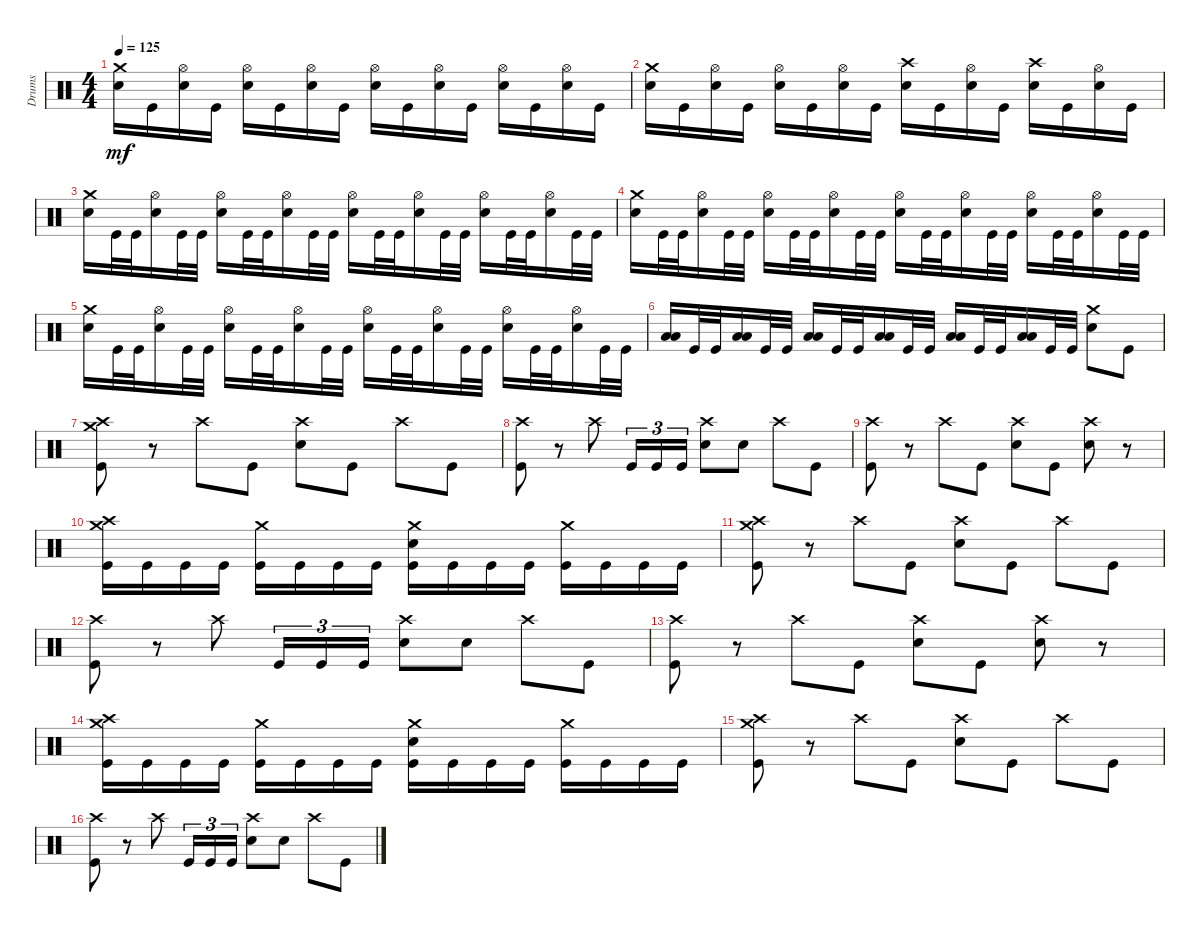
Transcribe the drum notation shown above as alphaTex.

\track ("Drums" "Drums") {instrument percussion}
\staff {score}
\articulation defaults
\ts (4 4)
\tempo 125
\clef neutral
\ks c
("Crash medium (hit)" "Electric Snare (hit)").16{dy mf} "Kick (hit)".16 ("Hi-Hat (open)" "Electric Snare (hit)").16 "Kick (hit)".16 ("Hi-Hat (open)" "Electric Snare (hit)").16 "Kick (hit)".16 ("Hi-Hat (open)" "Electric Snare (hit)").16 "Kick (hit)".16 ("Hi-Hat (open)" "Electric Snare (hit)").16 "Kick (hit)".16 ("Hi-Hat (open)" "Electric Snare (hit)").16 "Kick (hit)".16 ("Hi-Hat (open)" "Electric Snare (hit)").16 "Kick (hit)".16 ("Hi-Hat (open)" "Electric Snare (hit)").16 "Kick (hit)".16 |
("Crash medium (hit)" "Electric Snare (hit)").16 "Kick (hit)".16 ("Hi-Hat (open)" "Electric Snare (hit)").16 "Kick (hit)".16 ("Hi-Hat (open)" "Electric Snare (hit)").16 "Kick (hit)".16 ("Hi-Hat (open)" "Electric Snare (hit)").16 "Kick (hit)".16 ("Crash high (hit)" "Electric Snare (hit)").16 "Kick (hit)".16 ("Hi-Hat (open)" "Electric Snare (hit)").16 "Kick (hit)".16 ("Crash high (hit)" "Electric Snare (hit)").16 "Kick (hit)".16 ("Hi-Hat (open)" "Electric Snare (hit)").16 "Kick (hit)".16 |
("Crash medium (hit)" "Electric Snare (hit)").16 "Kick (hit)".32 "Kick (hit)".32 ("Hi-Hat (open)" "Electric Snare (hit)").16 "Kick (hit)".32 "Kick (hit)".32 ("Hi-Hat (open)" "Electric Snare (hit)").16 "Kick (hit)".32 "Kick (hit)".32 ("Hi-Hat (open)" "Electric Snare (hit)").16 "Kick (hit)".32 "Kick (hit)".32 ("Hi-Hat (open)" "Electric Snare (hit)").16 "Kick (hit)".32 "Kick (hit)".32 ("Hi-Hat (open)" "Electric Snare (hit)").16 "Kick (hit)".32 "Kick (hit)".32 ("Hi-Hat (open)" "Electric Snare (hit)").16 "Kick (hit)".32 "Kick (hit)".32 ("Hi-Hat (open)" "Electric Snare (hit)").16 "Kick (hit)".32 "Kick (hit)".32 |
("Crash medium (hit)" "Electric Snare (hit)").16 "Kick (hit)".32 "Kick (hit)".32 ("Hi-Hat (open)" "Electric Snare (hit)").16 "Kick (hit)".32 "Kick (hit)".32 ("Hi-Hat (open)" "Electric Snare (hit)").16 "Kick (hit)".32 "Kick (hit)".32 ("Hi-Hat (open)" "Electric Snare (hit)").16 "Kick (hit)".32 "Kick (hit)".32 ("Hi-Hat (open)" "Electric Snare (hit)").16 "Kick (hit)".32 "Kick (hit)".32 ("Hi-Hat (open)" "Electric Snare (hit)").16 "Kick (hit)".32 "Kick (hit)".32 ("Hi-Hat (open)" "Electric Snare (hit)").16 "Kick (hit)".32 "Kick (hit)".32 ("Hi-Hat (open)" "Electric Snare (hit)").16 "Kick (hit)".32 "Kick (hit)".32 |
("Crash medium (hit)" "Electric Snare (hit)").16 "Kick (hit)".32 "Kick (hit)".32 ("Hi-Hat (open)" "Electric Snare (hit)").16 "Kick (hit)".32 "Kick (hit)".32 ("Hi-Hat (open)" "Electric Snare (hit)").16 "Kick (hit)".32 "Kick (hit)".32 ("Hi-Hat (open)" "Electric Snare (hit)").16 "Kick (hit)".32 "Kick (hit)".32 ("Hi-Hat (open)" "Electric Snare (hit)").16 "Kick (hit)".32 "Kick (hit)".32 ("Hi-Hat (open)" "Electric Snare (hit)").16 "Kick (hit)".32 "Kick (hit)".32 ("Hi-Hat (open)" "Electric Snare (hit)").16 "Kick (hit)".32 "Kick (hit)".32 ("Hi-Hat (open)" "Electric Snare (hit)").16 "Kick (hit)".32 "Kick (hit)".32 |
("Low Floor Tom (hit)" "Low Floor Tom (hit)").16 "Kick (hit)".32 "Kick (hit)".32 ("Low Floor Tom (hit)" "Low Floor Tom (hit)").16 "Kick (hit)".32 "Kick (hit)".32 ("Low Floor Tom (hit)" "Low Floor Tom (hit)").16 "Kick (hit)".32 "Kick (hit)".32 ("Low Floor Tom (hit)" "Low Floor Tom (hit)").16 "Kick (hit)".32 "Kick (hit)".32 ("Low Floor Tom (hit)" "Low Floor Tom (hit)").16 "Kick (hit)".32 "Kick (hit)".32 ("Low Floor Tom (hit)" "Low Floor Tom (hit)").16 "Kick (hit)".32 "Kick (hit)".32 ("Crash medium (hit)" "Electric Snare (hit)").8 "Kick (hit)".8 |
("Crash medium (hit)" "Crash high (hit)" "Kick (hit)").8 r.8 "Crash high (hit)".8 "Kick (hit)".8 ("Crash high (hit)" "Electric Snare (hit)").8 "Kick (hit)".8 "Crash high (hit)".8 "Kick (hit)".8 |
("Crash high (hit)" "Kick (hit)").8 r.8 "Crash high (hit)".8 "Kick (hit)".16{tu (3 2)} "Kick (hit)".16{tu (3 2)} "Kick (hit)".16{tu (3 2)} ("Crash high (hit)" "Electric Snare (hit)").8 "Electric Snare (hit)".8 "Crash high (hit)".8 "Kick (hit)".8 |
("Crash high (hit)" "Kick (hit)").8 r.8 "Crash high (hit)".8 "Kick (hit)".8 ("Crash high (hit)" "Electric Snare (hit)").8 "Kick (hit)".8 ("Crash high (hit)" "Electric Snare (hit)").8 r.8 |
("Crash medium (hit)" "Crash high (hit)" "Kick (hit)").16 "Kick (hit)".16 "Kick (hit)".16 "Kick (hit)".16 ("Crash medium (hit)" "Kick (hit)").16 "Kick (hit)".16 "Kick (hit)".16 "Kick (hit)".16 ("Crash medium (hit)" "Electric Snare (hit)" "Kick (hit)").16 "Kick (hit)".16 "Kick (hit)".16 "Kick (hit)".16 ("Crash medium (hit)" "Kick (hit)").16 "Kick (hit)".16 "Kick (hit)".16 "Kick (hit)".16 |
("Crash medium (hit)" "Crash high (hit)" "Kick (hit)").8 r.8 "Crash high (hit)".8 "Kick (hit)".8 ("Crash high (hit)" "Electric Snare (hit)").8 "Kick (hit)".8 "Crash high (hit)".8 "Kick (hit)".8 |
("Crash high (hit)" "Kick (hit)").8 r.8 "Crash high (hit)".8 "Kick (hit)".16{tu (3 2)} "Kick (hit)".16{tu (3 2)} "Kick (hit)".16{tu (3 2)} ("Crash high (hit)" "Electric Snare (hit)").8 "Electric Snare (hit)".8 "Crash high (hit)".8 "Kick (hit)".8 |
("Crash high (hit)" "Kick (hit)").8 r.8 "Crash high (hit)".8 "Kick (hit)".8 ("Crash high (hit)" "Electric Snare (hit)").8 "Kick (hit)".8 ("Crash high (hit)" "Electric Snare (hit)").8 r.8 |
("Crash medium (hit)" "Crash high (hit)" "Kick (hit)").16 "Kick (hit)".16 "Kick (hit)".16 "Kick (hit)".16 ("Crash medium (hit)" "Kick (hit)").16 "Kick (hit)".16 "Kick (hit)".16 "Kick (hit)".16 ("Crash medium (hit)" "Electric Snare (hit)" "Kick (hit)").16 "Kick (hit)".16 "Kick (hit)".16 "Kick (hit)".16 ("Crash medium (hit)" "Kick (hit)").16 "Kick (hit)".16 "Kick (hit)".16 "Kick (hit)".16 |
("Crash medium (hit)" "Crash high (hit)" "Kick (hit)").8 r.8 "Crash high (hit)".8 "Kick (hit)".8 ("Crash high (hit)" "Electric Snare (hit)").8 "Kick (hit)".8 "Crash high (hit)".8 "Kick (hit)".8 |
("Crash high (hit)" "Kick (hit)").8 r.8 "Crash high (hit)".8 "Kick (hit)".16{tu (3 2)} "Kick (hit)".16{tu (3 2)} "Kick (hit)".16{tu (3 2)} ("Crash high (hit)" "Electric Snare (hit)").8 "Electric Snare (hit)".8 "Crash high (hit)".8 "Kick (hit)".8
